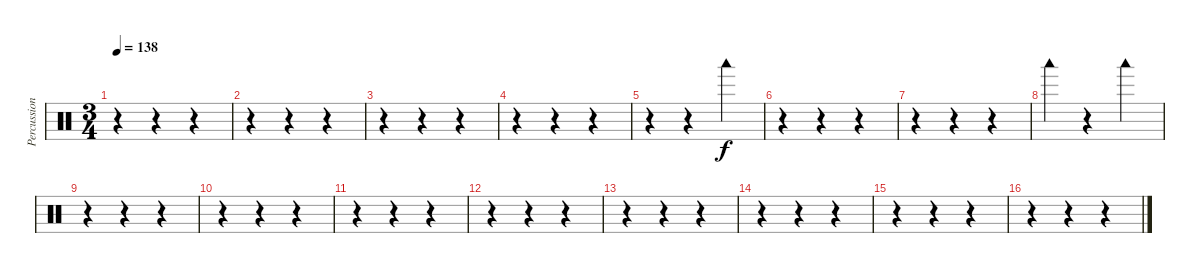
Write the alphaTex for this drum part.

\track ("Percussions" "Percussion") {instrument percussion}
\staff {score}
\articulation defaults
\ts (3 4)
\tempo 138
\clef neutral
\ks c
r.4{dy f} r.4 r.4 |
r.4 r.4 r.4 |
r.4 r.4 r.4 |
r.4 r.4 r.4 |
r.4 r.4 "Woodblock low (hit)".4 |
r.4 r.4 r.4 |
r.4 r.4 r.4 |
"Woodblock low (hit)".4 r.4 "Woodblock low (hit)".4 |
r.4 r.4 r.4 |
r.4 r.4 r.4 |
r.4 r.4 r.4 |
r.4 r.4 r.4 |
r.4 r.4 r.4 |
r.4 r.4 r.4 |
r.4 r.4 r.4 |
r.4 r.4 r.4
